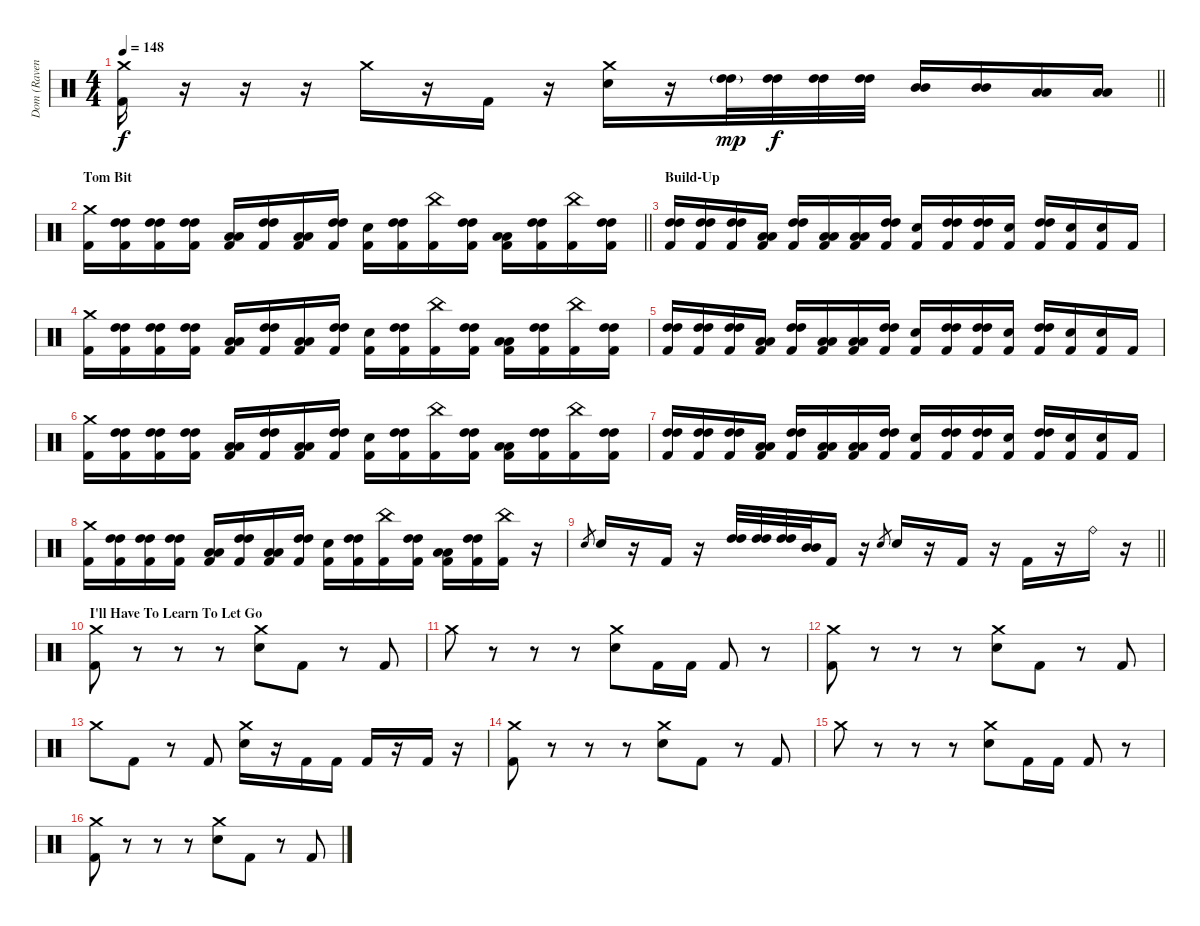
\track ("Dom (Ravenface)" "Dom (Raven") {instrument percussion}
\staff {score}
\articulation defaults
\ts (4 4)
\tempo 148
\clef neutral
\barLineRight lightlight
\ks c
("Crash medium (hit)" "Kick (hit) 2").16{dy f} r.16 r.16 r.16 "Crash medium (hit)".16 r.16 "Kick (hit) 2".16 r.16 ("Crash medium (hit)" "Electric Snare (hit)").16 r.16 ("High Tom (hit)"{g} "High Tom (hit)"{g}).32{dy mp} ("High Tom (hit)" "High Tom (hit)").32{dy f} ("High Tom (hit)" "High Tom (hit)").32 ("High Tom (hit)" "High Tom (hit)").32 ("Mid Tom (hit)" "Mid Tom (hit)").16 ("Mid Tom (hit)" "Mid Tom (hit)").16 ("Low Tom (hit)" "Low Tom (hit)").16 ("Low Tom (hit)" "Low Tom (hit)").16 |
\section ("" "Tom Bit")
\barLineRight lightlight
("Crash medium (hit)" "Kick (hit) 2").16 ("High Tom (hit)" "High Tom (hit)" "Kick (hit) 2").16 ("High Tom (hit)" "High Tom (hit)" "Kick (hit) 2").16 ("High Tom (hit)" "High Tom (hit)" "Kick (hit) 2").16 ("Low Tom (hit)" "Low Tom (hit)" "Kick (hit) 2").16 ("High Tom (hit)" "High Tom (hit)" "Kick (hit) 2").16 ("Low Tom (hit)" "Low Tom (hit)" "Kick (hit) 2").16 ("High Tom (hit)" "High Tom (hit)" "Kick (hit) 2").16 ("Electric Snare (hit)" "Kick (hit) 2").16 ("High Tom (hit)" "High Tom (hit)" "Kick (hit) 2").16 ("China (hit)" "Kick (hit) 2").16 ("High Tom (hit)" "High Tom (hit)" "Kick (hit) 2").16 ("Low Tom (hit)" "Low Tom (hit)" "Kick (hit) 2").16 ("High Tom (hit)" "High Tom (hit)" "Kick (hit) 2").16 ("China (hit)" "Kick (hit) 2").16 ("High Tom (hit)" "High Tom (hit)" "Kick (hit) 2").16 |
\section ("" "Build-Up")
("High Tom (hit)" "High Tom (hit)" "Kick (hit) 2").16 ("High Tom (hit)" "High Tom (hit)" "Kick (hit) 2").16 ("High Tom (hit)" "High Tom (hit)" "Kick (hit) 2").16 ("Low Tom (hit)" "Low Tom (hit)" "Kick (hit) 2").16 ("High Tom (hit)" "High Tom (hit)" "Kick (hit) 2").16 ("Low Tom (hit)" "Low Tom (hit)" "Kick (hit) 2").16 ("Low Tom (hit)" "Low Tom (hit)" "Kick (hit) 2").16 ("High Tom (hit)" "High Tom (hit)" "Kick (hit) 2").16 ("Electric Snare (hit)" "Kick (hit) 2").16 ("High Tom (hit)" "High Tom (hit)" "Kick (hit) 2").16 ("High Tom (hit)" "High Tom (hit)" "Kick (hit) 2").16 ("Electric Snare (hit)" "Kick (hit) 2").16 ("High Tom (hit)" "High Tom (hit)" "Kick (hit) 2").16 ("Electric Snare (hit)" "Kick (hit) 2").16 ("Electric Snare (hit)" "Kick (hit) 2").16 "Kick (hit) 2".16 |
("Crash medium (hit)" "Kick (hit) 2").16 ("High Tom (hit)" "High Tom (hit)" "Kick (hit) 2").16 ("High Tom (hit)" "High Tom (hit)" "Kick (hit) 2").16 ("High Tom (hit)" "High Tom (hit)" "Kick (hit) 2").16 ("Low Tom (hit)" "Low Tom (hit)" "Kick (hit) 2").16 ("High Tom (hit)" "High Tom (hit)" "Kick (hit) 2").16 ("Low Tom (hit)" "Low Tom (hit)" "Kick (hit) 2").16 ("High Tom (hit)" "High Tom (hit)" "Kick (hit) 2").16 ("Electric Snare (hit)" "Kick (hit) 2").16 ("High Tom (hit)" "High Tom (hit)" "Kick (hit) 2").16 ("China (hit)" "Kick (hit) 2").16 ("High Tom (hit)" "High Tom (hit)" "Kick (hit) 2").16 ("Low Tom (hit)" "Low Tom (hit)" "Kick (hit) 2").16 ("High Tom (hit)" "High Tom (hit)" "Kick (hit) 2").16 ("China (hit)" "Kick (hit) 2").16 ("High Tom (hit)" "High Tom (hit)" "Kick (hit) 2").16 |
("High Tom (hit)" "High Tom (hit)" "Kick (hit) 2").16 ("High Tom (hit)" "High Tom (hit)" "Kick (hit) 2").16 ("High Tom (hit)" "High Tom (hit)" "Kick (hit) 2").16 ("Low Tom (hit)" "Low Tom (hit)" "Kick (hit) 2").16 ("High Tom (hit)" "High Tom (hit)" "Kick (hit) 2").16 ("Low Tom (hit)" "Low Tom (hit)" "Kick (hit) 2").16 ("Low Tom (hit)" "Low Tom (hit)" "Kick (hit) 2").16 ("High Tom (hit)" "High Tom (hit)" "Kick (hit) 2").16 ("Electric Snare (hit)" "Kick (hit) 2").16 ("High Tom (hit)" "High Tom (hit)" "Kick (hit) 2").16 ("High Tom (hit)" "High Tom (hit)" "Kick (hit) 2").16 ("Electric Snare (hit)" "Kick (hit) 2").16 ("High Tom (hit)" "High Tom (hit)" "Kick (hit) 2").16 ("Electric Snare (hit)" "Kick (hit) 2").16 ("Electric Snare (hit)" "Kick (hit) 2").16 "Kick (hit) 2".16 |
("Crash medium (hit)" "Kick (hit) 2").16 ("High Tom (hit)" "High Tom (hit)" "Kick (hit) 2").16 ("High Tom (hit)" "High Tom (hit)" "Kick (hit) 2").16 ("High Tom (hit)" "High Tom (hit)" "Kick (hit) 2").16 ("Low Tom (hit)" "Low Tom (hit)" "Kick (hit) 2").16 ("High Tom (hit)" "High Tom (hit)" "Kick (hit) 2").16 ("Low Tom (hit)" "Low Tom (hit)" "Kick (hit) 2").16 ("High Tom (hit)" "High Tom (hit)" "Kick (hit) 2").16 ("Electric Snare (hit)" "Kick (hit) 2").16 ("High Tom (hit)" "High Tom (hit)" "Kick (hit) 2").16 ("China (hit)" "Kick (hit) 2").16 ("High Tom (hit)" "High Tom (hit)" "Kick (hit) 2").16 ("Low Tom (hit)" "Low Tom (hit)" "Kick (hit) 2").16 ("High Tom (hit)" "High Tom (hit)" "Kick (hit) 2").16 ("China (hit)" "Kick (hit) 2").16 ("High Tom (hit)" "High Tom (hit)" "Kick (hit) 2").16 |
("High Tom (hit)" "High Tom (hit)" "Kick (hit) 2").16 ("High Tom (hit)" "High Tom (hit)" "Kick (hit) 2").16 ("High Tom (hit)" "High Tom (hit)" "Kick (hit) 2").16 ("Low Tom (hit)" "Low Tom (hit)" "Kick (hit) 2").16 ("High Tom (hit)" "High Tom (hit)" "Kick (hit) 2").16 ("Low Tom (hit)" "Low Tom (hit)" "Kick (hit) 2").16 ("Low Tom (hit)" "Low Tom (hit)" "Kick (hit) 2").16 ("High Tom (hit)" "High Tom (hit)" "Kick (hit) 2").16 ("Electric Snare (hit)" "Kick (hit) 2").16 ("High Tom (hit)" "High Tom (hit)" "Kick (hit) 2").16 ("High Tom (hit)" "High Tom (hit)" "Kick (hit) 2").16 ("Electric Snare (hit)" "Kick (hit) 2").16 ("High Tom (hit)" "High Tom (hit)" "Kick (hit) 2").16 ("Electric Snare (hit)" "Kick (hit) 2").16 ("Electric Snare (hit)" "Kick (hit) 2").16 "Kick (hit) 2".16 |
("Crash medium (hit)" "Kick (hit) 2").16 ("High Tom (hit)" "High Tom (hit)" "Kick (hit) 2").16 ("High Tom (hit)" "High Tom (hit)" "Kick (hit) 2").16 ("High Tom (hit)" "High Tom (hit)" "Kick (hit) 2").16 ("Low Tom (hit)" "Low Tom (hit)" "Kick (hit) 2").16 ("High Tom (hit)" "High Tom (hit)" "Kick (hit) 2").16 ("Low Tom (hit)" "Low Tom (hit)" "Kick (hit) 2").16 ("High Tom (hit)" "High Tom (hit)" "Kick (hit) 2").16 ("Electric Snare (hit)" "Kick (hit) 2").16 ("High Tom (hit)" "High Tom (hit)" "Kick (hit) 2").16 ("China (hit)" "Kick (hit) 2").16 ("High Tom (hit)" "High Tom (hit)" "Kick (hit) 2").16 ("Low Tom (hit)" "Low Tom (hit)" "Kick (hit) 2").16 ("High Tom (hit)" "High Tom (hit)" "Kick (hit) 2").16 ("China (hit)" "Kick (hit) 2").16 r.16 |
\barLineRight lightlight "Electric Snare (hit)".8{gr} "Electric Snare (hit)".16
r.16 "Kick (hit) 2".16 r.16 ("High Tom (hit)" "High Tom (hit)").32 ("High Tom (hit)" "High Tom (hit)").32 ("High Tom (hit)" "High Tom (hit)").32 ("Mid Tom (hit)" "Mid Tom (hit)").32 "Kick (hit) 2".16 r.16 "Electric Snare (hit)".8{gr} "Electric Snare (hit)".16 r.16 "Kick (hit) 2".16 r.16 "Kick (hit) 2".16 r.16 "Ride (bell)".16 r.16 |
\section ("" "I'll Have To Learn To Let Go")
("Crash medium (hit)" "Kick (hit) 2").8 r.8 r.8 r.8 ("Crash medium (hit)" "Electric Snare (hit)").8 "Kick (hit) 2".8 r.8 "Kick (hit) 2".8 |
"Crash medium (hit)".8 r.8 r.8 r.8 ("Crash medium (hit)" "Electric Snare (hit)").8 "Kick (hit) 2".16 "Kick (hit) 2".16 "Kick (hit) 2".8 r.8 |
("Crash medium (hit)" "Kick (hit) 2").8 r.8 r.8 r.8 ("Crash medium (hit)" "Electric Snare (hit)").8 "Kick (hit) 2".8 r.8 "Kick (hit) 2".8 |
"Crash medium (hit)".8 "Kick (hit) 2".8 r.8 "Kick (hit) 2".8 ("Crash medium (hit)" "Electric Snare (hit)").16 r.16 "Kick (hit) 2".16 "Kick (hit) 2".16 "Kick (hit) 2".16 r.16 "Kick (hit) 2".16 r.16 |
("Crash medium (hit)" "Kick (hit) 2").8 r.8 r.8 r.8 ("Crash medium (hit)" "Electric Snare (hit)").8 "Kick (hit) 2".8 r.8 "Kick (hit) 2".8 |
"Crash medium (hit)".8 r.8 r.8 r.8 ("Crash medium (hit)" "Electric Snare (hit)").8 "Kick (hit) 2".16 "Kick (hit) 2".16 "Kick (hit) 2".8 r.8 |
("Crash medium (hit)" "Kick (hit) 2").8 r.8 r.8 r.8 ("Crash medium (hit)" "Electric Snare (hit)").8 "Kick (hit) 2".8 r.8 "Kick (hit) 2".8
